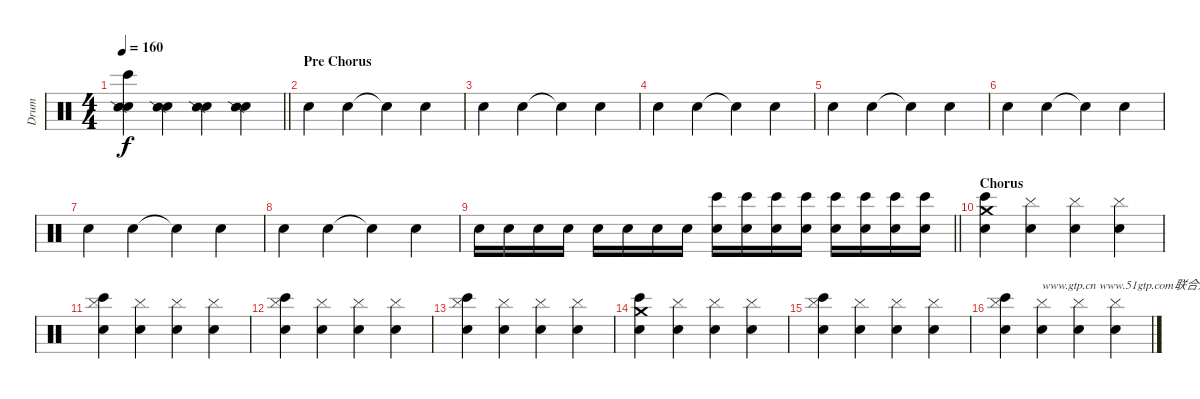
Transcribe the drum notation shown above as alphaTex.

\track ("Drum" "Drum") {instrument percussion}
\staff {score}
\articulation defaults
\ts (4 4)
\tempo 160
\clef neutral
\barLineRight lightlight
\ks c
("Electric Snare (hit)" "Bongo High (hit)" "Snare (side stick) 2").4{dy f} ("Electric Snare (hit)" "Snare (side stick) 2").4 ("Electric Snare (hit)" "Snare (side stick) 2").4 ("Electric Snare (hit)" "Snare (side stick) 2").4 |
\section ("" "Pre Chorus")
"Electric Snare (hit)".4 "Hand Clap (hit)".4 "Snare (hit)"{t}.4 "Hand Clap (hit)".4 |
"Electric Snare (hit)".4 "Hand Clap (hit)".4 "Snare (hit)"{t}.4 "Hand Clap (hit)".4 |
"Electric Snare (hit)".4 "Hand Clap (hit)".4 "Snare (hit)"{t}.4 "Hand Clap (hit)".4 |
"Electric Snare (hit)".4 "Hand Clap (hit)".4 "Snare (hit)"{t}.4 "Hand Clap (hit)".4 |
"Electric Snare (hit)".4 "Hand Clap (hit)".4 "Snare (hit)"{t}.4 "Hand Clap (hit)".4 |
"Electric Snare (hit)".4 "Hand Clap (hit)".4 "Snare (hit)"{t}.4 "Hand Clap (hit)".4 |
"Electric Snare (hit)".4 "Hand Clap (hit)".4 "Snare (hit)"{t}.4 "Hand Clap (hit)".4 |
\barLineRight lightlight "Electric Snare (hit)".16 "Electric Snare (hit)".16 "Electric Snare (hit)".16 "Electric Snare (hit)".16 "Electric Snare (hit)".16 "Electric Snare (hit)".16 "Electric Snare (hit)".16 "Electric Snare (hit)".16
("Electric Snare (hit)" "Bongo High (hit)").16 ("Electric Snare (hit)" "Bongo High (hit)").16 ("Electric Snare (hit)" "Bongo High (hit)").16 ("Electric Snare (hit)" "Bongo High (hit)").16 ("Electric Snare (hit)" "Bongo High (hit)").16 ("Electric Snare (hit)" "Bongo High (hit)").16 ("Electric Snare (hit)" "Bongo High (hit)").16 ("Electric Snare (hit)" "Bongo High (hit)").16 |
\section ("" "Chorus")
("Electric Snare (hit)" "Bongo High (hit)" "Crash medium (hit)").4 ("Electric Snare (hit)" "Cymbal (hit)").4 ("Electric Snare (hit)" "Cymbal (hit)").4 ("Electric Snare (hit)" "Cymbal (hit)").4 |
("Electric Snare (hit)" "Bongo High (hit)" "Cymbal (hit)").4 ("Electric Snare (hit)" "Cymbal (hit)").4 ("Electric Snare (hit)" "Cymbal (hit)").4 ("Electric Snare (hit)" "Cymbal (hit)").4 |
("Electric Snare (hit)" "Bongo High (hit)" "Cymbal (hit)").4 ("Electric Snare (hit)" "Cymbal (hit)").4 ("Electric Snare (hit)" "Cymbal (hit)").4 ("Electric Snare (hit)" "Cymbal (hit)").4 |
("Electric Snare (hit)" "Bongo High (hit)" "Cymbal (hit)").4 ("Electric Snare (hit)" "Cymbal (hit)").4 ("Electric Snare (hit)" "Cymbal (hit)").4 ("Electric Snare (hit)" "Cymbal (hit)").4 |
("Electric Snare (hit)" "Bongo High (hit)" "Crash medium (hit)").4 ("Electric Snare (hit)" "Cymbal (hit)").4 ("Electric Snare (hit)" "Cymbal (hit)").4 ("Electric Snare (hit)" "Cymbal (hit)").4 |
("Electric Snare (hit)" "Bongo High (hit)" "Cymbal (hit)").4 ("Electric Snare (hit)" "Cymbal (hit)").4 ("Electric Snare (hit)" "Cymbal (hit)").4 ("Electric Snare (hit)" "Cymbal (hit)").4 |
("Electric Snare (hit)" "Bongo High (hit)" "Cymbal (hit)").4 ("Electric Snare (hit)" "Cymbal (hit)").4{txt "www.gtp.cn www.51gtp.com联合为您提供优秀的GTP!"} ("Electric Snare (hit)" "Cymbal (hit)").4 ("Electric Snare (hit)" "Cymbal (hit)").4
